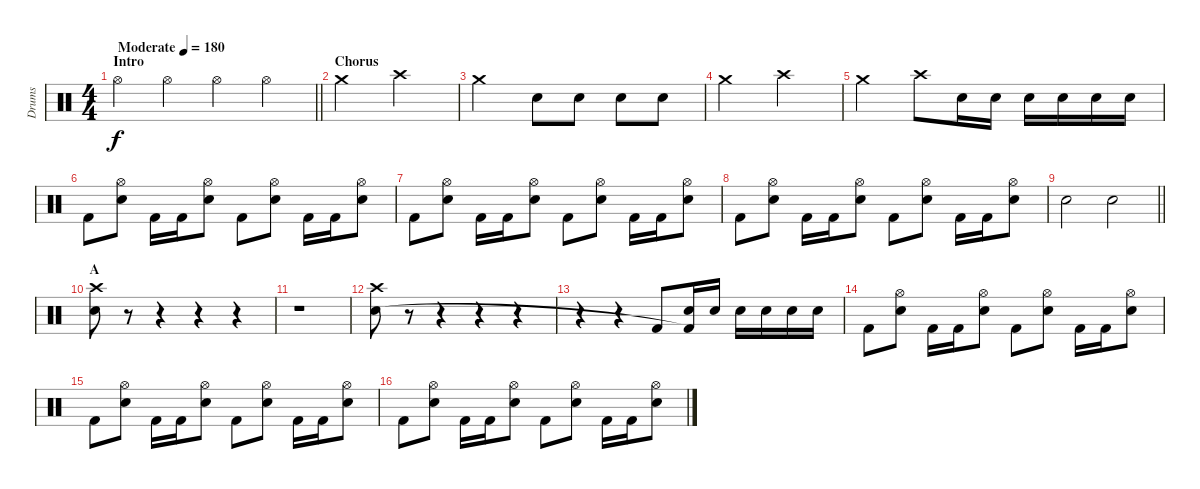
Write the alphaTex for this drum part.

\track ("Drums" "Drums") {instrument percussion}
\staff {score}
\articulation defaults
\ts (4 4)
\section ("" "Intro")
\tempo (180 "Moderate")
\clef neutral
\barLineRight lightlight
\ks c "Hi-Hat (open)".4{dy f} "Hi-Hat (open)".4 "Hi-Hat (open)".4 "Hi-Hat (open)".4
|
\section ("" "Chorus")
"Crash medium (hit)".2 "Crash high (hit)".2 |
"Crash medium (hit)".2 "Electric Snare (hit)".8 "Electric Snare (hit)".8 "Electric Snare (hit)".8 "Electric Snare (hit)".8 |
"Crash medium (hit)".2 "Crash high (hit)".2 |
"Crash medium (hit)".2 "Crash high (hit)".8 "Electric Snare (hit)".16 "Electric Snare (hit)".16 "Electric Snare (hit)".16 "Electric Snare (hit)".16 "Electric Snare (hit)".16 "Electric Snare (hit)".16 |
"Kick (hit) 2".8 ("Hi-Hat (open)" "Electric Snare (hit)").8 "Kick (hit) 2".16 "Kick (hit) 2".16 ("Hi-Hat (open)" "Electric Snare (hit)").8 "Kick (hit) 2".8 ("Hi-Hat (open)" "Electric Snare (hit)").8 "Kick (hit) 2".16 "Kick (hit) 2".16 ("Hi-Hat (open)" "Electric Snare (hit)").8 |
"Kick (hit) 2".8 ("Hi-Hat (open)" "Electric Snare (hit)").8 "Kick (hit) 2".16 "Kick (hit) 2".16 ("Hi-Hat (open)" "Electric Snare (hit)").8 "Kick (hit) 2".8 ("Hi-Hat (open)" "Electric Snare (hit)").8 "Kick (hit) 2".16 "Kick (hit) 2".16 ("Hi-Hat (open)" "Electric Snare (hit)").8 |
"Kick (hit) 2".8 ("Hi-Hat (open)" "Electric Snare (hit)").8 "Kick (hit) 2".16 "Kick (hit) 2".16 ("Hi-Hat (open)" "Electric Snare (hit)").8 "Kick (hit) 2".8 ("Hi-Hat (open)" "Electric Snare (hit)").8 "Kick (hit) 2".16 "Kick (hit) 2".16 ("Hi-Hat (open)" "Electric Snare (hit)").8 |
\barLineRight lightlight "Electric Snare (hit)".2 "Electric Snare (hit)".2
|
\section ("" "A")
("Crash high (hit)" "Electric Snare (hit)").8 r.8 r.4 r.4 r.4 |
r.1 |
("Crash high (hit)" "Electric Snare (hit)").8 r.8 r.4 r.4 r.4 |
r.4 r.4 "Kick (hit) 2".8 ("Electric Snare (hit)" "Kick (hit) 2"{t}).16 "Electric Snare (hit)".16 "Electric Snare (hit)".16 "Electric Snare (hit)".16 "Electric Snare (hit)".16 "Electric Snare (hit)".16 |
"Kick (hit) 2".8 ("Hi-Hat (open)" "Electric Snare (hit)").8 "Kick (hit) 2".16 "Kick (hit) 2".16 ("Hi-Hat (open)" "Electric Snare (hit)").8 "Kick (hit) 2".8 ("Hi-Hat (open)" "Electric Snare (hit)").8 "Kick (hit) 2".16 "Kick (hit) 2".16 ("Hi-Hat (open)" "Electric Snare (hit)").8 |
"Kick (hit) 2".8 ("Hi-Hat (open)" "Electric Snare (hit)").8 "Kick (hit) 2".16 "Kick (hit) 2".16 ("Hi-Hat (open)" "Electric Snare (hit)").8 "Kick (hit) 2".8 ("Hi-Hat (open)" "Electric Snare (hit)").8 "Kick (hit) 2".16 "Kick (hit) 2".16 ("Hi-Hat (open)" "Electric Snare (hit)").8 |
"Kick (hit) 2".8 ("Hi-Hat (open)" "Electric Snare (hit)").8 "Kick (hit) 2".16 "Kick (hit) 2".16 ("Hi-Hat (open)" "Electric Snare (hit)").8 "Kick (hit) 2".8 ("Hi-Hat (open)" "Electric Snare (hit)").8 "Kick (hit) 2".16 "Kick (hit) 2".16 ("Hi-Hat (open)" "Electric Snare (hit)").8
